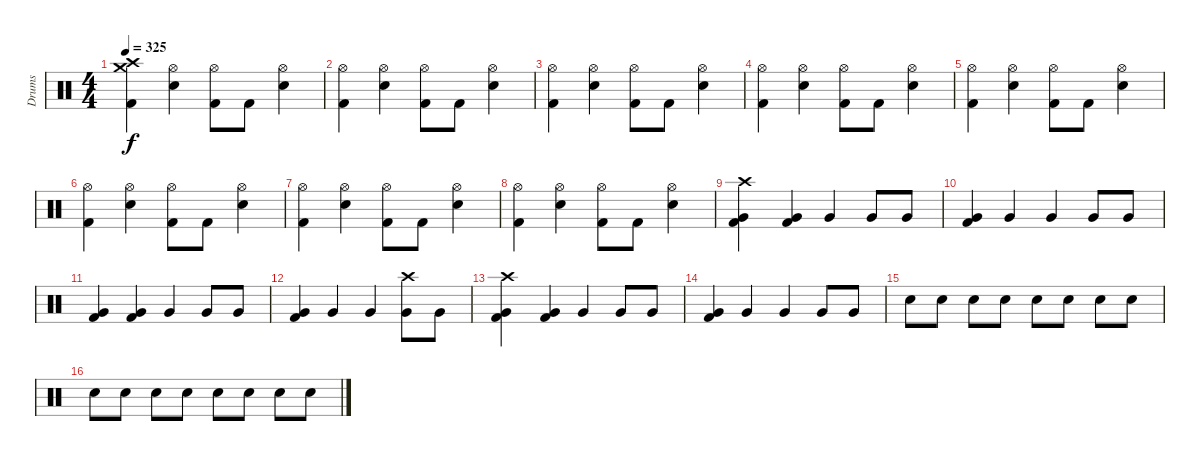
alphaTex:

\track ("Drums" "Drums") {instrument percussion}
\staff {score}
\articulation defaults
\ts (4 4)
\tempo 325
\clef neutral
\ks c
("Crash high (hit)" "Crash medium (hit)" "Kick (hit) 2").4{dy f} ("Electric Snare (hit)" "Hi-Hat (open)").4 ("Kick (hit) 2" "Hi-Hat (open)").8 "Kick (hit) 2".8 ("Electric Snare (hit)" "Hi-Hat (open)").4 |
("Kick (hit) 2" "Hi-Hat (open)").4 ("Electric Snare (hit)" "Hi-Hat (open)").4 ("Kick (hit) 2" "Hi-Hat (open)").8 "Kick (hit) 2".8 ("Electric Snare (hit)" "Hi-Hat (open)").4 |
("Kick (hit) 2" "Hi-Hat (open)").4 ("Electric Snare (hit)" "Hi-Hat (open)").4 ("Kick (hit) 2" "Hi-Hat (open)").8 "Kick (hit) 2".8 ("Electric Snare (hit)" "Hi-Hat (open)").4 |
("Kick (hit) 2" "Hi-Hat (open)").4 ("Electric Snare (hit)" "Hi-Hat (open)").4 ("Kick (hit) 2" "Hi-Hat (open)").8 "Kick (hit) 2".8 ("Electric Snare (hit)" "Hi-Hat (open)").4 |
("Hi-Hat (open)" "Kick (hit) 2").4 ("Electric Snare (hit)" "Hi-Hat (open)").4 ("Kick (hit) 2" "Hi-Hat (open)").8 "Kick (hit) 2".8 ("Electric Snare (hit)" "Hi-Hat (open)").4 |
("Kick (hit) 2" "Hi-Hat (open)").4 ("Electric Snare (hit)" "Hi-Hat (open)").4 ("Kick (hit) 2" "Hi-Hat (open)").8 "Kick (hit) 2".8 ("Electric Snare (hit)" "Hi-Hat (open)").4 |
("Kick (hit) 2" "Hi-Hat (open)").4 ("Electric Snare (hit)" "Hi-Hat (open)").4 ("Kick (hit) 2" "Hi-Hat (open)").8 "Kick (hit) 2".8 ("Electric Snare (hit)" "Hi-Hat (open)").4 |
("Kick (hit) 2" "Hi-Hat (open)").4 ("Electric Snare (hit)" "Hi-Hat (open)").4 ("Kick (hit) 2" "Hi-Hat (open)").8 "Kick (hit) 2".8 ("Electric Snare (hit)" "Hi-Hat (open)").4 |
("Kick (hit) 2" "Very Low Tom (hit)" "Crash high (hit)").4 ("Kick (hit) 2" "Very Low Tom (hit)").4 "Very Low Tom (hit)".4 "Very Low Tom (hit)".8 "Very Low Tom (hit)".8 |
("Very Low Tom (hit)" "Kick (hit) 2").4 "Very Low Tom (hit)".4 "Very Low Tom (hit)".4 "Very Low Tom (hit)".8 "Very Low Tom (hit)".8 |
("Very Low Tom (hit)" "Kick (hit) 2").4 ("Kick (hit) 2" "Very Low Tom (hit)").4 "Very Low Tom (hit)".4 "Very Low Tom (hit)".8 "Very Low Tom (hit)".8 |
("Very Low Tom (hit)" "Kick (hit) 2").4 "Very Low Tom (hit)".4 "Very Low Tom (hit)".4 ("Very Low Tom (hit)" "Crash high (hit)").8 "Very Low Tom (hit)".8 |
("Very Low Tom (hit)" "Kick (hit) 2" "Crash high (hit)").4 ("Kick (hit) 2" "Very Low Tom (hit)").4 "Very Low Tom (hit)".4 "Very Low Tom (hit)".8 "Very Low Tom (hit)".8 |
("Very Low Tom (hit)" "Kick (hit) 2").4 "Very Low Tom (hit)".4 "Very Low Tom (hit)".4 "Very Low Tom (hit)".8 "Very Low Tom (hit)".8 |
"Electric Snare (hit)".8 "Electric Snare (hit)".8 "Electric Snare (hit)".8 "Electric Snare (hit)".8 "Electric Snare (hit)".8 "Electric Snare (hit)".8 "Electric Snare (hit)".8 "Electric Snare (hit)".8 |
"Electric Snare (hit)".8 "Electric Snare (hit)".8 "Electric Snare (hit)".8 "Electric Snare (hit)".8 "Electric Snare (hit)".8 "Electric Snare (hit)".8 "Electric Snare (hit)".8 "Electric Snare (hit)".8
